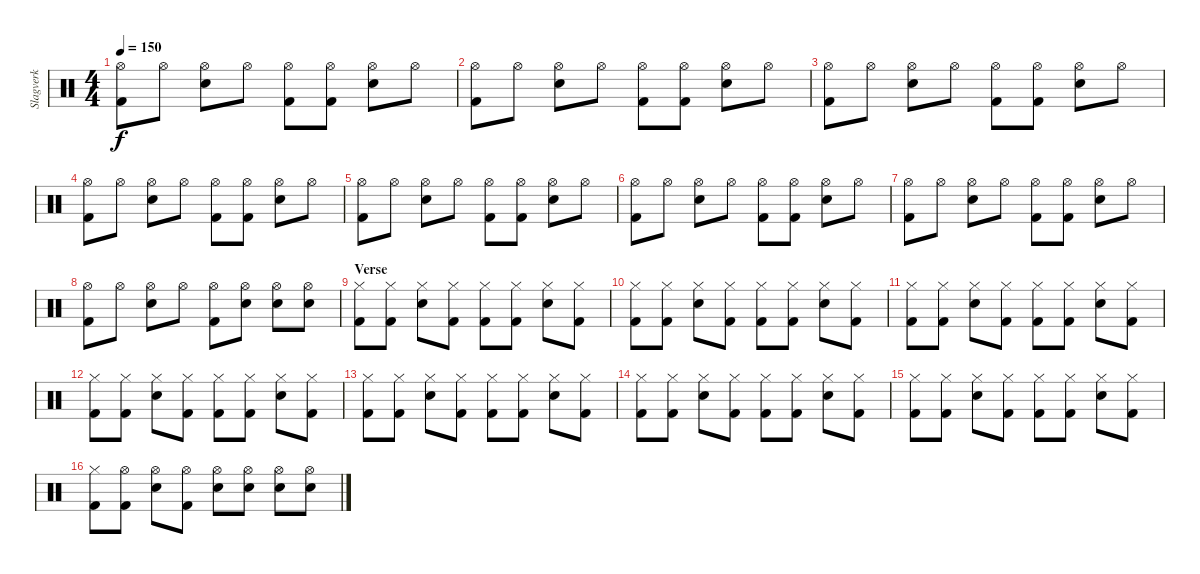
\track ("Slagverk" "Slagverk") {instrument percussion}
\staff {score}
\articulation defaults
\ts (4 4)
\tempo 150
\clef neutral
\ks c
("Hi-Hat (open)" "Kick (hit) 2").8{dy f} "Hi-Hat (open)".8 ("Hi-Hat (open)" "Electric Snare (hit)").8 "Hi-Hat (open)".8 ("Hi-Hat (open)" "Kick (hit) 2").8 ("Hi-Hat (open)" "Kick (hit) 2").8 ("Hi-Hat (open)" "Electric Snare (hit)").8 "Hi-Hat (open)".8 |
("Hi-Hat (open)" "Kick (hit) 2").8 "Hi-Hat (open)".8 ("Hi-Hat (open)" "Electric Snare (hit)").8 "Hi-Hat (open)".8 ("Hi-Hat (open)" "Kick (hit) 2").8 ("Hi-Hat (open)" "Kick (hit) 2").8 ("Hi-Hat (open)" "Electric Snare (hit)").8 "Hi-Hat (open)".8 |
("Hi-Hat (open)" "Kick (hit) 2").8 "Hi-Hat (open)".8 ("Hi-Hat (open)" "Electric Snare (hit)").8 "Hi-Hat (open)".8 ("Hi-Hat (open)" "Kick (hit) 2").8 ("Hi-Hat (open)" "Kick (hit) 2").8 ("Hi-Hat (open)" "Electric Snare (hit)").8 "Hi-Hat (open)".8 |
("Hi-Hat (open)" "Kick (hit) 2").8 "Hi-Hat (open)".8 ("Hi-Hat (open)" "Electric Snare (hit)").8 "Hi-Hat (open)".8 ("Hi-Hat (open)" "Kick (hit) 2").8 ("Hi-Hat (open)" "Kick (hit) 2").8 ("Hi-Hat (open)" "Electric Snare (hit)").8 "Hi-Hat (open)".8 |
("Hi-Hat (open)" "Kick (hit) 2").8 "Hi-Hat (open)".8 ("Hi-Hat (open)" "Electric Snare (hit)").8 "Hi-Hat (open)".8 ("Hi-Hat (open)" "Kick (hit) 2").8 ("Hi-Hat (open)" "Kick (hit) 2").8 ("Hi-Hat (open)" "Electric Snare (hit)").8 "Hi-Hat (open)".8 |
("Hi-Hat (open)" "Kick (hit) 2").8 "Hi-Hat (open)".8 ("Hi-Hat (open)" "Electric Snare (hit)").8 "Hi-Hat (open)".8 ("Hi-Hat (open)" "Kick (hit) 2").8 ("Hi-Hat (open)" "Kick (hit) 2").8 ("Hi-Hat (open)" "Electric Snare (hit)").8 "Hi-Hat (open)".8 |
("Hi-Hat (open)" "Kick (hit) 2").8 "Hi-Hat (open)".8 ("Hi-Hat (open)" "Electric Snare (hit)").8 "Hi-Hat (open)".8 ("Hi-Hat (open)" "Kick (hit) 2").8 ("Hi-Hat (open)" "Kick (hit) 2").8 ("Hi-Hat (open)" "Electric Snare (hit)").8 "Hi-Hat (open)".8 |
("Hi-Hat (open)" "Kick (hit) 2").8 "Hi-Hat (open)".8 ("Hi-Hat (open)" "Electric Snare (hit)").8 "Hi-Hat (open)".8 ("Hi-Hat (open)" "Kick (hit) 2").8 ("Hi-Hat (open)" "Electric Snare (hit)").8 ("Hi-Hat (open)" "Electric Snare (hit)").8 ("Hi-Hat (open)" "Electric Snare (hit)").8 |
\section ("" "Verse")
("Hi-Hat (closed)" "Kick (hit) 2").8 ("Hi-Hat (closed)" "Kick (hit) 2").8 ("Hi-Hat (closed)" "Electric Snare (hit)").8 ("Hi-Hat (closed)" "Kick (hit) 2").8 ("Hi-Hat (closed)" "Kick (hit) 2").8 ("Hi-Hat (closed)" "Kick (hit) 2").8 ("Hi-Hat (closed)" "Electric Snare (hit)").8 ("Hi-Hat (closed)" "Kick (hit) 2").8 |
("Hi-Hat (closed)" "Kick (hit) 2").8 ("Hi-Hat (closed)" "Kick (hit) 2").8 ("Hi-Hat (closed)" "Electric Snare (hit)").8 ("Hi-Hat (closed)" "Kick (hit) 2").8 ("Hi-Hat (closed)" "Kick (hit) 2").8 ("Hi-Hat (closed)" "Kick (hit) 2").8 ("Hi-Hat (closed)" "Electric Snare (hit)").8 ("Hi-Hat (closed)" "Kick (hit) 2").8 |
("Hi-Hat (closed)" "Kick (hit) 2").8 ("Hi-Hat (closed)" "Kick (hit) 2").8 ("Hi-Hat (closed)" "Electric Snare (hit)").8 ("Hi-Hat (closed)" "Kick (hit) 2").8 ("Hi-Hat (closed)" "Kick (hit) 2").8 ("Hi-Hat (closed)" "Kick (hit) 2").8 ("Hi-Hat (closed)" "Electric Snare (hit)").8 ("Hi-Hat (closed)" "Kick (hit) 2").8 |
("Hi-Hat (closed)" "Kick (hit) 2").8 ("Hi-Hat (closed)" "Kick (hit) 2").8 ("Hi-Hat (closed)" "Electric Snare (hit)").8 ("Hi-Hat (closed)" "Kick (hit) 2").8 ("Hi-Hat (closed)" "Kick (hit) 2").8 ("Hi-Hat (closed)" "Kick (hit) 2").8 ("Hi-Hat (closed)" "Electric Snare (hit)").8 ("Hi-Hat (closed)" "Kick (hit) 2").8 |
("Hi-Hat (closed)" "Kick (hit) 2").8 ("Hi-Hat (closed)" "Kick (hit) 2").8 ("Hi-Hat (closed)" "Electric Snare (hit)").8 ("Hi-Hat (closed)" "Kick (hit) 2").8 ("Hi-Hat (closed)" "Kick (hit) 2").8 ("Hi-Hat (closed)" "Kick (hit) 2").8 ("Hi-Hat (closed)" "Electric Snare (hit)").8 ("Hi-Hat (closed)" "Kick (hit) 2").8 |
("Hi-Hat (closed)" "Kick (hit) 2").8 ("Hi-Hat (closed)" "Kick (hit) 2").8 ("Hi-Hat (closed)" "Electric Snare (hit)").8 ("Hi-Hat (closed)" "Kick (hit) 2").8 ("Hi-Hat (closed)" "Kick (hit) 2").8 ("Hi-Hat (closed)" "Kick (hit) 2").8 ("Hi-Hat (closed)" "Electric Snare (hit)").8 ("Hi-Hat (closed)" "Kick (hit) 2").8 |
("Hi-Hat (closed)" "Kick (hit) 2").8 ("Hi-Hat (closed)" "Kick (hit) 2").8 ("Hi-Hat (closed)" "Electric Snare (hit)").8 ("Hi-Hat (closed)" "Kick (hit) 2").8 ("Hi-Hat (closed)" "Kick (hit) 2").8 ("Hi-Hat (closed)" "Kick (hit) 2").8 ("Hi-Hat (closed)" "Electric Snare (hit)").8 ("Hi-Hat (closed)" "Kick (hit) 2").8 |
("Hi-Hat (closed)" "Kick (hit) 2").8 ("Hi-Hat (open)" "Kick (hit) 2").8 ("Hi-Hat (open)" "Electric Snare (hit)").8 ("Hi-Hat (open)" "Kick (hit) 2").8 ("Hi-Hat (open)" "Electric Snare (hit)").8 ("Hi-Hat (open)" "Electric Snare (hit)").8 ("Hi-Hat (open)" "Electric Snare (hit)").8 ("Hi-Hat (open)" "Electric Snare (hit)").8
